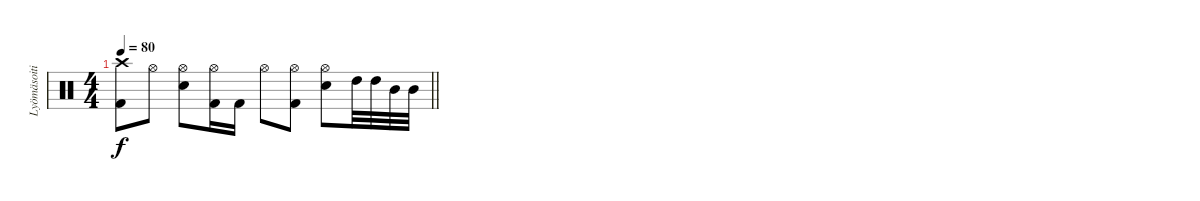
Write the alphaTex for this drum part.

\track ("Lyömäsoitin" "Lyömäsoiti") {instrument percussion}
\staff {score}
\articulation defaults
\ts (4 4)
\tempo 80
\clef neutral
\barLineRight lightlight
\ks c
("Crash high (hit)" "Kick (hit) 2").8{dy f} "Hi-Hat (open)".8 ("Hi-Hat (open)" "Snare (hit) 2").8 ("Hi-Hat (open)" "Kick (hit) 2").16 "Kick (hit) 2".16 "Hi-Hat (open)".8 ("Hi-Hat (open)" "Kick (hit) 2").8 ("Hi-Hat (open)" "Snare (hit) 2").8 "High Tom (hit)".32 "High Tom (hit)".32 "Mid Tom (hit)".32 "Mid Tom (hit)".32
